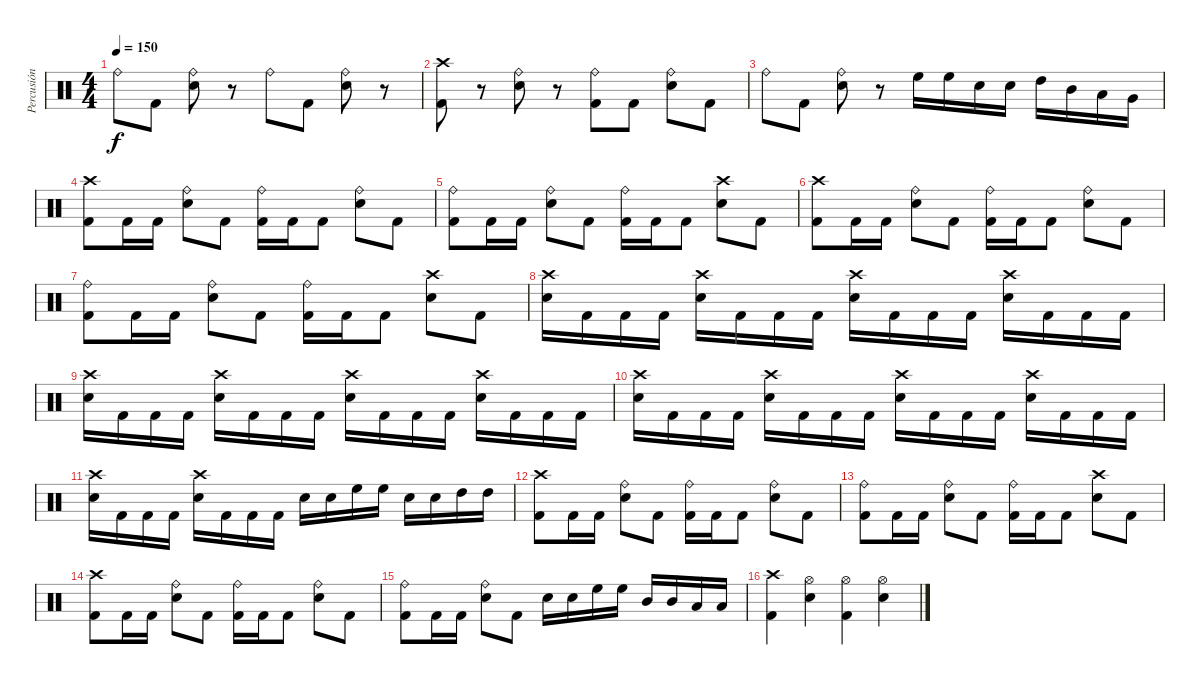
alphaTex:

\track ("Percusión" "Percusión") {instrument percussion}
\staff {score}
\articulation defaults
\ts (4 4)
\tempo 150
\clef neutral
\ks c "Ride (bell)".8{dy f} "Kick (hit) 2".8
("Ride (bell)" "Electric Snare (hit)").8 r.8 "Ride (bell)".8 "Kick (hit) 2".8 ("Ride (bell)" "Electric Snare (hit)").8 r.8 |
("Crash high (hit)" "Kick (hit) 2").8 r.8 ("Ride (bell)" "Electric Snare (hit)").8 r.8 ("Ride (bell)" "Kick (hit) 2").8 "Kick (hit) 2".8 ("Ride (bell)" "Electric Snare (hit)").8 "Kick (hit) 2".8 |
"Ride (bell)".8 "Kick (hit) 2".8 ("Ride (bell)" "Electric Snare (hit)").8 r.8 "High Floor Tom (hit)".16 "High Floor Tom (hit)".16 "Electric Snare (hit)".16 "Electric Snare (hit)".16 "High Tom (hit)".16 "Mid Tom (hit)".16 "Low Tom (hit)".16 "Very Low Tom (hit)".16 |
("Crash high (hit)" "Kick (hit) 2").8 "Kick (hit) 2".16 "Kick (hit) 2".16 ("Ride (bell)" "Electric Snare (hit)").8 "Kick (hit) 2".8 ("Ride (bell)" "Kick (hit) 2").16 "Kick (hit) 2".16 "Kick (hit) 2".8 ("Ride (bell)" "Electric Snare (hit)").8 "Kick (hit) 2".8 |
("Ride (bell)" "Kick (hit) 2").8 "Kick (hit) 2".16 "Kick (hit) 2".16 ("Ride (bell)" "Electric Snare (hit)").8 "Kick (hit) 2".8 ("Ride (bell)" "Kick (hit) 2").16 "Kick (hit) 2".16 "Kick (hit) 2".8 ("Crash high (hit)" "Electric Snare (hit)").8 "Kick (hit) 2".8 |
("Crash high (hit)" "Kick (hit) 2").8 "Kick (hit) 2".16 "Kick (hit) 2".16 ("Ride (bell)" "Electric Snare (hit)").8 "Kick (hit) 2".8 ("Ride (bell)" "Kick (hit) 2").16 "Kick (hit) 2".16 "Kick (hit) 2".8 ("Ride (bell)" "Electric Snare (hit)").8 "Kick (hit) 2".8 |
("Ride (bell)" "Kick (hit) 2").8 "Kick (hit) 2".16 "Kick (hit) 2".16 ("Ride (bell)" "Electric Snare (hit)").8 "Kick (hit) 2".8 ("Ride (bell)" "Kick (hit) 2").16 "Kick (hit) 2".16 "Kick (hit) 2".8 ("Crash high (hit)" "Electric Snare (hit)").8 "Kick (hit) 2".8 |
("Crash high (hit)" "Electric Snare (hit)").16 "Kick (hit) 2".16 "Kick (hit) 2".16 "Kick (hit) 2".16 ("Crash high (hit)" "Electric Snare (hit)").16 "Kick (hit) 2".16 "Kick (hit) 2".16 "Kick (hit) 2".16 ("Crash high (hit)" "Electric Snare (hit)").16 "Kick (hit) 2".16 "Kick (hit) 2".16 "Kick (hit) 2".16 ("Crash high (hit)" "Electric Snare (hit)").16 "Kick (hit) 2".16 "Kick (hit) 2".16 "Kick (hit) 2".16 |
("Crash high (hit)" "Electric Snare (hit)").16 "Kick (hit) 2".16 "Kick (hit) 2".16 "Kick (hit) 2".16 ("Crash high (hit)" "Electric Snare (hit)").16 "Kick (hit) 2".16 "Kick (hit) 2".16 "Kick (hit) 2".16 ("Crash high (hit)" "Electric Snare (hit)").16 "Kick (hit) 2".16 "Kick (hit) 2".16 "Kick (hit) 2".16 ("Crash high (hit)" "Electric Snare (hit)").16 "Kick (hit) 2".16 "Kick (hit) 2".16 "Kick (hit) 2".16 |
("Crash high (hit)" "Electric Snare (hit)").16 "Kick (hit) 2".16 "Kick (hit) 2".16 "Kick (hit) 2".16 ("Crash high (hit)" "Electric Snare (hit)").16 "Kick (hit) 2".16 "Kick (hit) 2".16 "Kick (hit) 2".16 ("Crash high (hit)" "Electric Snare (hit)").16 "Kick (hit) 2".16 "Kick (hit) 2".16 "Kick (hit) 2".16 ("Crash high (hit)" "Electric Snare (hit)").16 "Kick (hit) 2".16 "Kick (hit) 2".16 "Kick (hit) 2".16 |
("Crash high (hit)" "Electric Snare (hit)").16 "Kick (hit) 2".16 "Kick (hit) 2".16 "Kick (hit) 2".16 ("Crash high (hit)" "Electric Snare (hit)").16 "Kick (hit) 2".16 "Kick (hit) 2".16 "Kick (hit) 2".16 "Electric Snare (hit)".16 "Electric Snare (hit)".16 "High Floor Tom (hit)".16 "High Floor Tom (hit)".16 "Electric Snare (hit)".16 "Electric Snare (hit)".16 "High Tom (hit)".16 "High Tom (hit)".16 |
("Crash high (hit)" "Kick (hit) 2").8 "Kick (hit) 2".16 "Kick (hit) 2".16 ("Ride (bell)" "Electric Snare (hit)").8 "Kick (hit) 2".8 ("Ride (bell)" "Kick (hit) 2").16 "Kick (hit) 2".16 "Kick (hit) 2".8 ("Ride (bell)" "Electric Snare (hit)").8 "Kick (hit) 2".8 |
("Ride (bell)" "Kick (hit) 2").8 "Kick (hit) 2".16 "Kick (hit) 2".16 ("Ride (bell)" "Electric Snare (hit)").8 "Kick (hit) 2".8 ("Ride (bell)" "Kick (hit) 2").16 "Kick (hit) 2".16 "Kick (hit) 2".8 ("Crash high (hit)" "Electric Snare (hit)").8 "Kick (hit) 2".8 |
("Crash high (hit)" "Kick (hit) 2").8 "Kick (hit) 2".16 "Kick (hit) 2".16 ("Ride (bell)" "Electric Snare (hit)").8 "Kick (hit) 2".8 ("Ride (bell)" "Kick (hit) 2").16 "Kick (hit) 2".16 "Kick (hit) 2".8 ("Ride (bell)" "Electric Snare (hit)").8 "Kick (hit) 2".8 |
("Ride (bell)" "Kick (hit) 2").8 "Kick (hit) 2".16 "Kick (hit) 2".16 ("Ride (bell)" "Electric Snare (hit)").8 "Kick (hit) 2".8 "Electric Snare (hit)".16 "Electric Snare (hit)".16 "High Floor Tom (hit)".16 "High Floor Tom (hit)".16 "Mid Tom (hit)".16 "Mid Tom (hit)".16 "Low Tom (hit)".16 "Low Tom (hit)".16 |
("Crash high (hit)" "Kick (hit) 2").4 ("Hi-Hat (open)" "Electric Snare (hit)").4 ("Hi-Hat (open)" "Kick (hit) 2").4 ("Hi-Hat (open)" "Electric Snare (hit)").4
